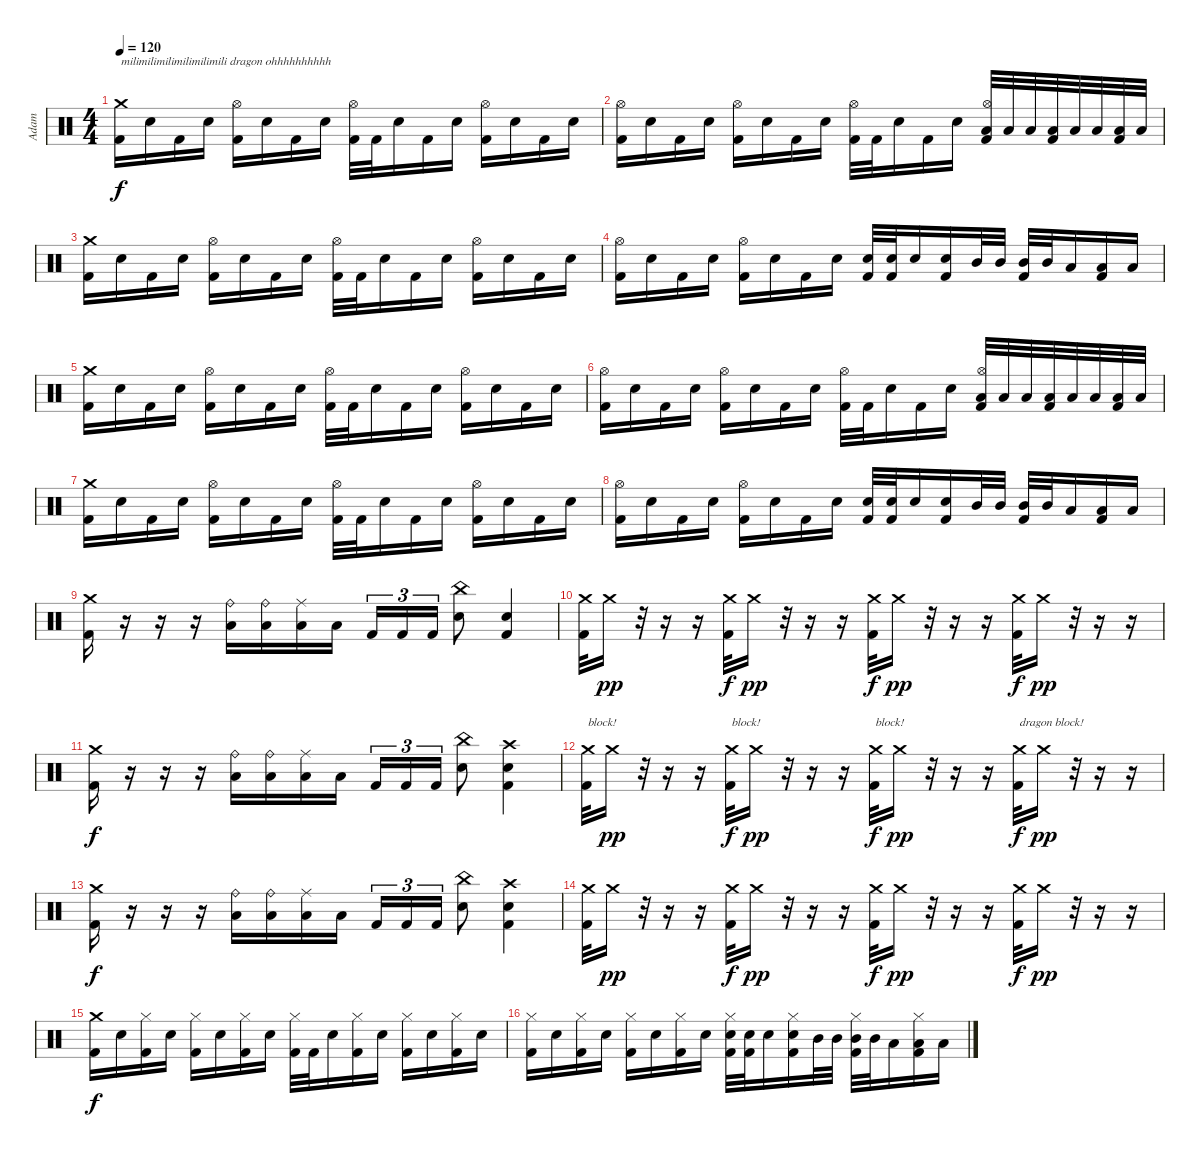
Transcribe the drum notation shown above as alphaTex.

\track ("Adam" "Adam") {instrument percussion}
\staff {score}
\articulation defaults
\ts (4 4)
\tempo 120
\clef neutral
\ks c
("Crash medium (hit)" "Kick (hit) 2").16{txt "milimilimilimilimilimili dragon ohhhhhhhhhh" dy f} "Electric Snare (hit)".16 "Kick (hit) 2".16 "Electric Snare (hit)".16 ("Hi-Hat (open)" "Kick (hit) 2").16 "Electric Snare (hit)".16 "Kick (hit) 2".16 "Electric Snare (hit)".16 ("Hi-Hat (open)" "Kick (hit) 2").32 "Kick (hit) 2".32 "Electric Snare (hit)".16 "Kick (hit) 2".16 "Electric Snare (hit)".16 ("Hi-Hat (open)" "Kick (hit) 2").16 "Electric Snare (hit)".16 "Kick (hit) 2".16 "Electric Snare (hit)".16 |
("Hi-Hat (open)" "Kick (hit) 2").16 "Electric Snare (hit)".16 "Kick (hit) 2".16 "Electric Snare (hit)".16 ("Hi-Hat (open)" "Kick (hit) 2").16 "Electric Snare (hit)".16 "Kick (hit) 2".16 "Electric Snare (hit)".16 ("Hi-Hat (open)" "Kick (hit) 2").32 "Kick (hit) 2".32 "Electric Snare (hit)".16 "Kick (hit) 2".16 "Electric Snare (hit)".16 ("Hi-Hat (open)" "Low Tom (hit)" "Kick (hit) 2").32 "Low Tom (hit)".32 "Low Tom (hit)".32 ("Low Tom (hit)" "Kick (hit) 2").32 "Low Tom (hit)".32 "Low Floor Tom (hit)".32 ("Low Floor Tom (hit)" "Kick (hit) 2").32 "Low Floor Tom (hit)".32 |
("Crash medium (hit)" "Kick (hit) 2").16 "Electric Snare (hit)".16 "Kick (hit) 2".16 "Electric Snare (hit)".16 ("Hi-Hat (open)" "Kick (hit) 2").16 "Electric Snare (hit)".16 "Kick (hit) 2".16 "Electric Snare (hit)".16 ("Hi-Hat (open)" "Kick (hit) 2").32 "Kick (hit) 2".32 "Electric Snare (hit)".16 "Kick (hit) 2".16 "Electric Snare (hit)".16 ("Hi-Hat (open)" "Kick (hit) 2").16 "Electric Snare (hit)".16 "Kick (hit) 2".16 "Electric Snare (hit)".16 |
("Hi-Hat (open)" "Kick (hit) 2").16 "Electric Snare (hit)".16 "Kick (hit) 2".16 "Electric Snare (hit)".16 ("Hi-Hat (open)" "Kick (hit) 2").16 "Electric Snare (hit)".16 "Kick (hit) 2".16 "Electric Snare (hit)".16 ("Electric Snare (hit)" "Kick (hit) 2").32 ("Electric Snare (hit)" "Kick (hit) 2").32 "Electric Snare (hit)".16 ("Electric Snare (hit)" "Kick (hit) 2").16 "Mid Tom (hit)".32 "Mid Tom (hit)".32 ("Mid Tom (hit)" "Kick (hit) 2").32 "Mid Tom (hit)".32 "Low Tom (hit)".16 ("Low Tom (hit)" "Kick (hit) 2").16 "Low Tom (hit)".16 |
("Crash medium (hit)" "Kick (hit) 2").16 "Electric Snare (hit)".16 "Kick (hit) 2".16 "Electric Snare (hit)".16 ("Hi-Hat (open)" "Kick (hit) 2").16 "Electric Snare (hit)".16 "Kick (hit) 2".16 "Electric Snare (hit)".16 ("Hi-Hat (open)" "Kick (hit) 2").32 "Kick (hit) 2".32 "Electric Snare (hit)".16 "Kick (hit) 2".16 "Electric Snare (hit)".16 ("Hi-Hat (open)" "Kick (hit) 2").16 "Electric Snare (hit)".16 "Kick (hit) 2".16 "Electric Snare (hit)".16 |
("Hi-Hat (open)" "Kick (hit) 2").16 "Electric Snare (hit)".16 "Kick (hit) 2".16 "Electric Snare (hit)".16 ("Hi-Hat (open)" "Kick (hit) 2").16 "Electric Snare (hit)".16 "Kick (hit) 2".16 "Electric Snare (hit)".16 ("Hi-Hat (open)" "Kick (hit) 2").32 "Kick (hit) 2".32 "Electric Snare (hit)".16 "Kick (hit) 2".16 "Electric Snare (hit)".16 ("Hi-Hat (open)" "Low Tom (hit)" "Kick (hit) 2").32 "Low Tom (hit)".32 "Low Tom (hit)".32 ("Low Tom (hit)" "Kick (hit) 2").32 "Low Tom (hit)".32 "Low Floor Tom (hit)".32 ("Low Floor Tom (hit)" "Kick (hit) 2").32 "Low Floor Tom (hit)".32 |
("Crash medium (hit)" "Kick (hit) 2").16 "Electric Snare (hit)".16 "Kick (hit) 2".16 "Electric Snare (hit)".16 ("Hi-Hat (open)" "Kick (hit) 2").16 "Electric Snare (hit)".16 "Kick (hit) 2".16 "Electric Snare (hit)".16 ("Hi-Hat (open)" "Kick (hit) 2").32 "Kick (hit) 2".32 "Electric Snare (hit)".16 "Kick (hit) 2".16 "Electric Snare (hit)".16 ("Hi-Hat (open)" "Kick (hit) 2").16 "Electric Snare (hit)".16 "Kick (hit) 2".16 "Electric Snare (hit)".16 |
("Hi-Hat (open)" "Kick (hit) 2").16 "Electric Snare (hit)".16 "Kick (hit) 2".16 "Electric Snare (hit)".16 ("Hi-Hat (open)" "Kick (hit) 2").16 "Electric Snare (hit)".16 "Kick (hit) 2".16 "Electric Snare (hit)".16 ("Electric Snare (hit)" "Kick (hit) 2").32 ("Electric Snare (hit)" "Kick (hit) 2").32 "Electric Snare (hit)".16 ("Electric Snare (hit)" "Kick (hit) 2").16 "Mid Tom (hit)".32 "Mid Tom (hit)".32 ("Mid Tom (hit)" "Kick (hit) 2").32 "Mid Tom (hit)".32 "Low Tom (hit)".16 ("Low Tom (hit)" "Kick (hit) 2").16 "Low Tom (hit)".16 |
("Crash medium (hit)" "Kick (hit) 2").16 r.16 r.16 r.16 ("Ride (bell)" "Low Tom (hit)").16 ("Ride (bell)" "Low Tom (hit)").16 ("Ride (middle)" "Low Tom (hit)").16 "Low Tom (hit)".16 "Kick (hit) 2".16{tu (3 2)} "Kick (hit) 2".16{tu (3 2)} "Kick (hit) 2".16{tu (3 2)} ("China (hit)" "Electric Snare (hit)").8 ("Electric Snare (hit)" "Kick (hit) 2").4 |
("Crash medium (hit)" "Kick (hit) 2").32 "Crash medium (hit)".16{dy pp} r.32 r.16 r.16 ("Crash medium (hit)" "Kick (hit) 2").32{dy f} "Crash medium (hit)".16{dy pp} r.32 r.16 r.16 ("Crash medium (hit)" "Kick (hit) 2").32{dy f} "Crash medium (hit)".16{dy pp} r.32 r.16 r.16 ("Crash medium (hit)" "Kick (hit) 2").32{dy f} "Crash medium (hit)".16{dy pp} r.32 r.16 r.16 |
("Crash medium (hit)" "Kick (hit) 2").16{dy f} r.16 r.16 r.16 ("Ride (bell)" "Low Tom (hit)").16 ("Ride (bell)" "Low Tom (hit)").16 ("Ride (middle)" "Low Tom (hit)").16 "Low Tom (hit)".16 "Kick (hit) 2".16{tu (3 2)} "Kick (hit) 2".16{tu (3 2)} "Kick (hit) 2".16{tu (3 2)} ("China (hit)" "Electric Snare (hit)").8 ("Crash high (hit)" "Electric Snare (hit)" "Kick (hit) 2").4 |
("Crash medium (hit)" "Kick (hit) 2").32{txt "block!"} "Crash medium (hit)".16{dy pp} r.32 r.16 r.16 ("Crash medium (hit)" "Kick (hit) 2").32{txt "block!" dy f} "Crash medium (hit)".16{dy pp} r.32 r.16 r.16 ("Crash medium (hit)" "Kick (hit) 2").32{txt "block!" dy f} "Crash medium (hit)".16{dy pp} r.32 r.16 r.16 ("Crash medium (hit)" "Kick (hit) 2").32{txt "dragon block!" dy f} "Crash medium (hit)".16{dy pp} r.32 r.16 r.16 |
("Crash medium (hit)" "Kick (hit) 2").16{dy f} r.16 r.16 r.16 ("Ride (bell)" "Low Tom (hit)").16 ("Ride (bell)" "Low Tom (hit)").16 ("Ride (middle)" "Low Tom (hit)").16 "Low Tom (hit)".16 "Kick (hit) 2".16{tu (3 2)} "Kick (hit) 2".16{tu (3 2)} "Kick (hit) 2".16{tu (3 2)} ("China (hit)" "Electric Snare (hit)").8 ("Crash high (hit)" "Electric Snare (hit)" "Kick (hit) 2").4 |
("Crash medium (hit)" "Kick (hit) 2").32 "Crash medium (hit)".16{dy pp} r.32 r.16 r.16 ("Crash medium (hit)" "Kick (hit) 2").32{dy f} "Crash medium (hit)".16{dy pp} r.32 r.16 r.16 ("Crash medium (hit)" "Kick (hit) 2").32{dy f} "Crash medium (hit)".16{dy pp} r.32 r.16 r.16 ("Crash medium (hit)" "Kick (hit) 2").32{dy f} "Crash medium (hit)".16{dy pp} r.32 r.16 r.16 |
("Crash medium (hit)" "Kick (hit) 2").16{dy f} "Electric Snare (hit)".16 ("Hi-Hat (closed)" "Kick (hit) 2").16 "Electric Snare (hit)".16 ("Hi-Hat (closed)" "Kick (hit) 2").16 "Electric Snare (hit)".16 ("Hi-Hat (closed)" "Kick (hit) 2").16 "Electric Snare (hit)".16 ("Hi-Hat (closed)" "Kick (hit) 2").32 "Kick (hit) 2".32 "Electric Snare (hit)".16 ("Hi-Hat (closed)" "Kick (hit) 2").16 "Electric Snare (hit)".16 ("Hi-Hat (closed)" "Kick (hit) 2").16 "Electric Snare (hit)".16 ("Hi-Hat (closed)" "Kick (hit) 2").16 "Electric Snare (hit)".16 |
("Hi-Hat (closed)" "Kick (hit) 2").16 "Electric Snare (hit)".16 ("Hi-Hat (closed)" "Kick (hit) 2").16 "Electric Snare (hit)".16 ("Hi-Hat (closed)" "Kick (hit) 2").16 "Electric Snare (hit)".16 ("Hi-Hat (closed)" "Kick (hit) 2").16 "Electric Snare (hit)".16 ("Hi-Hat (closed)" "Electric Snare (hit)" "Kick (hit) 2").32 ("Electric Snare (hit)" "Kick (hit) 2").32 "Electric Snare (hit)".16 ("Hi-Hat (closed)" "Electric Snare (hit)" "Kick (hit) 2").16 "Mid Tom (hit)".32 "Mid Tom (hit)".32 ("Hi-Hat (closed)" "Mid Tom (hit)" "Kick (hit) 2").32 "Mid Tom (hit)".32 "Low Tom (hit)".16 ("Hi-Hat (closed)" "Low Tom (hit)" "Kick (hit) 2").16 "Low Tom (hit)".16
